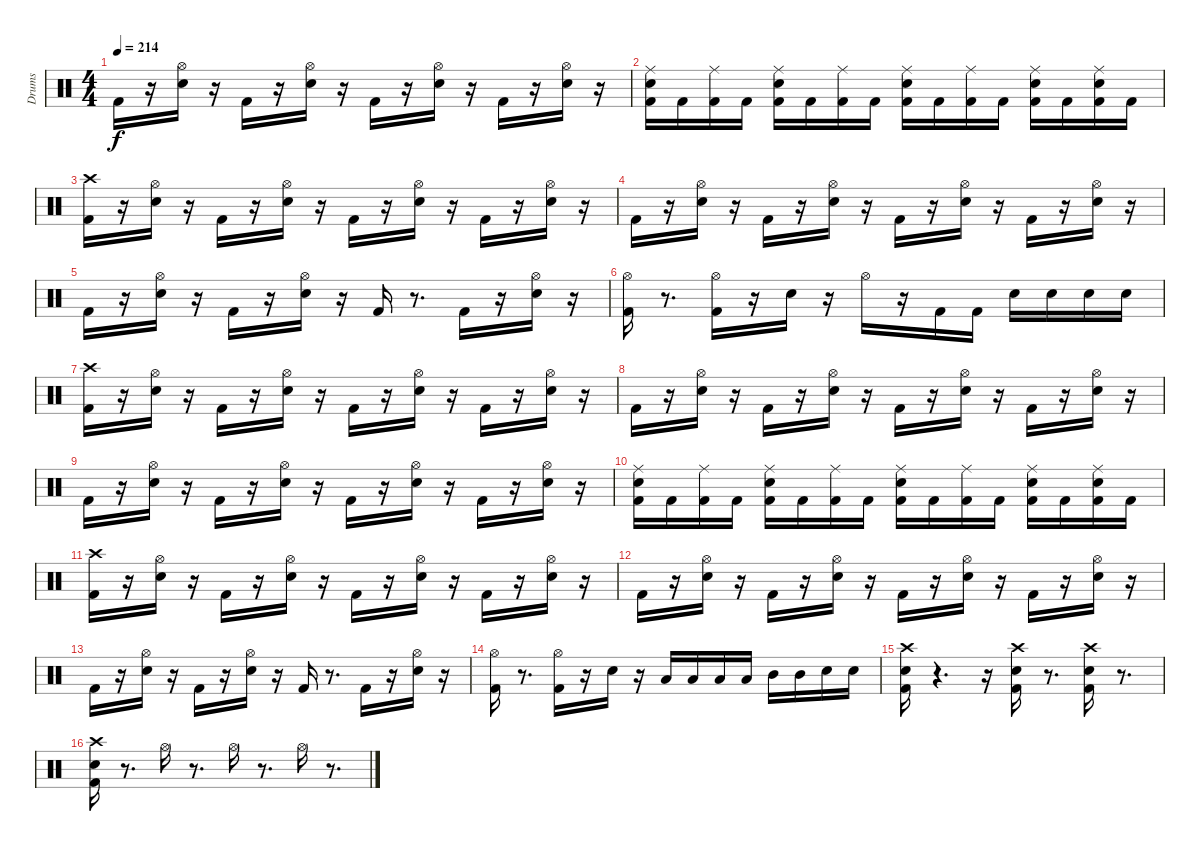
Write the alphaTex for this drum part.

\track ("Drums               " "Drums     ") {instrument percussion}
\staff {score}
\articulation defaults
\ts (4 4)
\tempo 214
\clef neutral
\ks c "Kick (hit) 2".16{dy f}
r.16 ("Snare (hit) 2" "Hi-Hat (open)").16 r.16 "Kick (hit) 2".16 r.16 ("Snare (hit) 2" "Hi-Hat (open)").16 r.16 "Kick (hit) 2".16 r.16 ("Snare (hit) 2" "Hi-Hat (open)").16 r.16 "Kick (hit) 2".16 r.16 ("Snare (hit) 2" "Hi-Hat (open)").16 r.16 |
("Kick (hit) 2" "Snare (hit) 2" "Ride (middle)").16 "Kick (hit) 2".16 ("Kick (hit) 2" "Ride (middle)").16 "Kick (hit) 2".16 ("Kick (hit) 2" "Snare (hit) 2" "Ride (middle)").16 "Kick (hit) 2".16 ("Kick (hit) 2" "Ride (middle)").16 "Kick (hit) 2".16 ("Kick (hit) 2" "Snare (hit) 2" "Ride (middle)").16 "Kick (hit) 2".16 ("Kick (hit) 2" "Ride (middle)").16 "Kick (hit) 2".16 ("Kick (hit) 2" "Snare (hit) 2" "Ride (middle)").16 "Kick (hit) 2".16 ("Kick (hit) 2" "Snare (hit) 2" "Ride (middle)").16 "Kick (hit) 2".16 |
("Kick (hit) 2" "Crash high (hit)").16 r.16 ("Snare (hit) 2" "Hi-Hat (open)").16 r.16 "Kick (hit) 2".16 r.16 ("Snare (hit) 2" "Hi-Hat (open)").16 r.16 "Kick (hit) 2".16 r.16 ("Snare (hit) 2" "Hi-Hat (open)").16 r.16 "Kick (hit) 2".16 r.16 ("Snare (hit) 2" "Hi-Hat (open)").16 r.16 |
"Kick (hit) 2".16 r.16 ("Snare (hit) 2" "Hi-Hat (open)").16 r.16 "Kick (hit) 2".16 r.16 ("Snare (hit) 2" "Hi-Hat (open)").16 r.16 "Kick (hit) 2".16 r.16 ("Snare (hit) 2" "Hi-Hat (open)").16 r.16 "Kick (hit) 2".16 r.16 ("Snare (hit) 2" "Hi-Hat (open)").16 r.16 |
"Kick (hit) 2".16 r.16 ("Snare (hit) 2" "Hi-Hat (open)").16 r.16 "Kick (hit) 2".16 r.16 ("Snare (hit) 2" "Hi-Hat (open)").16 r.16 "Kick (hit) 2".16 r.8{d} "Kick (hit) 2".16 r.16 ("Snare (hit) 2" "Hi-Hat (open)").16 r.16 |
("Kick (hit) 2" "Hi-Hat (open)").16 r.8{d} ("Kick (hit) 2" "Hi-Hat (open)").16 r.16 "Snare (hit) 2".16 r.16 "Hi-Hat (open)".16 r.16 "Kick (hit) 2".16 "Kick (hit) 2".16 "Snare (hit) 2".16 "Snare (hit) 2".16 "Snare (hit) 2".16 "Snare (hit) 2".16 |
("Kick (hit) 2" "Crash high (hit)").16 r.16 ("Snare (hit) 2" "Hi-Hat (open)").16 r.16 "Kick (hit) 2".16 r.16 ("Snare (hit) 2" "Hi-Hat (open)").16 r.16 "Kick (hit) 2".16 r.16 ("Snare (hit) 2" "Hi-Hat (open)").16 r.16 "Kick (hit) 2".16 r.16 ("Snare (hit) 2" "Hi-Hat (open)").16 r.16 |
"Kick (hit) 2".16 r.16 ("Snare (hit) 2" "Hi-Hat (open)").16 r.16 "Kick (hit) 2".16 r.16 ("Snare (hit) 2" "Hi-Hat (open)").16 r.16 "Kick (hit) 2".16 r.16 ("Snare (hit) 2" "Hi-Hat (open)").16 r.16 "Kick (hit) 2".16 r.16 ("Snare (hit) 2" "Hi-Hat (open)").16 r.16 |
"Kick (hit) 2".16 r.16 ("Snare (hit) 2" "Hi-Hat (open)").16 r.16 "Kick (hit) 2".16 r.16 ("Snare (hit) 2" "Hi-Hat (open)").16 r.16 "Kick (hit) 2".16 r.16 ("Snare (hit) 2" "Hi-Hat (open)").16 r.16 "Kick (hit) 2".16 r.16 ("Snare (hit) 2" "Hi-Hat (open)").16 r.16 |
("Kick (hit) 2" "Snare (hit) 2" "Ride (middle)").16 "Kick (hit) 2".16 ("Kick (hit) 2" "Ride (middle)").16 "Kick (hit) 2".16 ("Kick (hit) 2" "Snare (hit) 2" "Ride (middle)").16 "Kick (hit) 2".16 ("Kick (hit) 2" "Ride (middle)").16 "Kick (hit) 2".16 ("Kick (hit) 2" "Snare (hit) 2" "Ride (middle)").16 "Kick (hit) 2".16 ("Kick (hit) 2" "Ride (middle)").16 "Kick (hit) 2".16 ("Kick (hit) 2" "Snare (hit) 2" "Ride (middle)").16 "Kick (hit) 2".16 ("Kick (hit) 2" "Snare (hit) 2" "Ride (middle)").16 "Kick (hit) 2".16 |
("Kick (hit) 2" "Crash high (hit)").16 r.16 ("Snare (hit) 2" "Hi-Hat (open)").16 r.16 "Kick (hit) 2".16 r.16 ("Snare (hit) 2" "Hi-Hat (open)").16 r.16 "Kick (hit) 2".16 r.16 ("Snare (hit) 2" "Hi-Hat (open)").16 r.16 "Kick (hit) 2".16 r.16 ("Snare (hit) 2" "Hi-Hat (open)").16 r.16 |
"Kick (hit) 2".16 r.16 ("Snare (hit) 2" "Hi-Hat (open)").16 r.16 "Kick (hit) 2".16 r.16 ("Snare (hit) 2" "Hi-Hat (open)").16 r.16 "Kick (hit) 2".16 r.16 ("Snare (hit) 2" "Hi-Hat (open)").16 r.16 "Kick (hit) 2".16 r.16 ("Snare (hit) 2" "Hi-Hat (open)").16 r.16 |
"Kick (hit) 2".16 r.16 ("Snare (hit) 2" "Hi-Hat (open)").16 r.16 "Kick (hit) 2".16 r.16 ("Snare (hit) 2" "Hi-Hat (open)").16 r.16 "Kick (hit) 2".16 r.8{d} "Kick (hit) 2".16 r.16 ("Snare (hit) 2" "Hi-Hat (open)").16 r.16 |
("Kick (hit) 2" "Hi-Hat (open)").16 r.8{d} ("Kick (hit) 2" "Hi-Hat (open)").16 r.16 "Snare (hit) 2".16 r.16 "Low Floor Tom (hit)".16 "Low Floor Tom (hit)".16 "Low Tom (hit)".16 "Low Tom (hit)".16 "Mid Tom (hit)".16 "Mid Tom (hit)".16 "Snare (hit) 2".16 "Snare (hit) 2".16 |
("Kick (hit) 2" "Snare (hit) 2" "Crash high (hit)").16 r.4{d} r.16 ("Kick (hit) 2" "Snare (hit) 2" "Crash high (hit)").16 r.8{d} ("Kick (hit) 2" "Snare (hit) 2" "Crash high (hit)").16 r.8{d} |
("Kick (hit) 2" "Snare (hit) 2" "Crash high (hit)").16 r.8{d} "Hi-Hat (open)".16 r.8{d} "Hi-Hat (open)".16 r.8{d} "Hi-Hat (open)".16 r.8{d}
